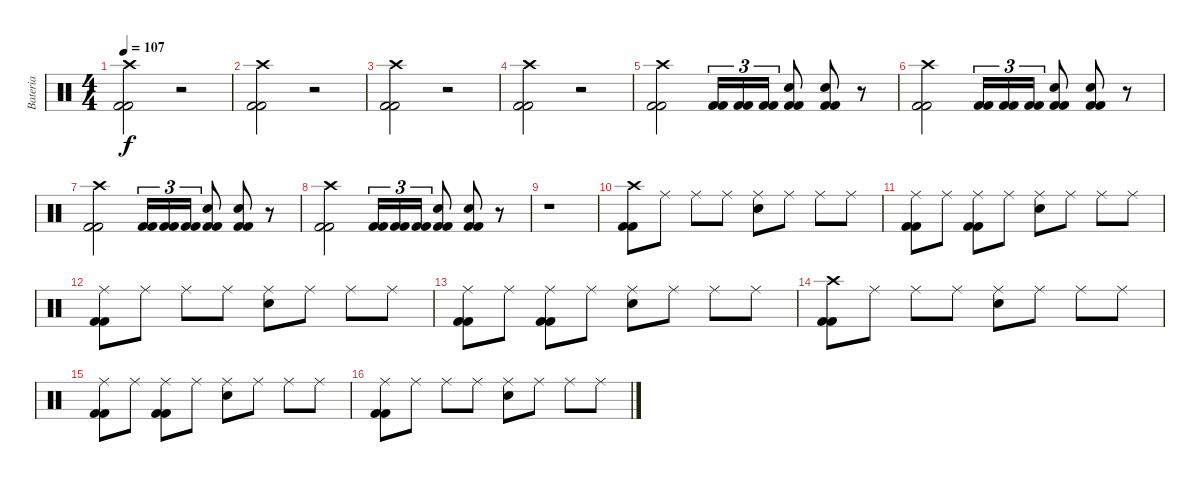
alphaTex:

\track ("Bateria" "Bateria") {instrument percussion}
\staff {score}
\articulation defaults
\ts (4 4)
\tempo 107
\clef neutral
\ks c
("Kick (hit) 2" "Kick (hit) 2" "Crash high (hit)").2{dy f} r.2 |
("Kick (hit) 2" "Kick (hit) 2" "Crash high (hit)").2 r.2 |
("Kick (hit) 2" "Kick (hit) 2" "Crash high (hit)").2 r.2 |
("Kick (hit) 2" "Kick (hit) 2" "Crash high (hit)").2 r.2 |
("Kick (hit) 2" "Kick (hit) 2" "Crash high (hit)").2 ("Kick (hit) 2" "Kick (hit) 2").16{tu (3 2)} ("Kick (hit) 2" "Kick (hit) 2").16{tu (3 2)} ("Kick (hit) 2" "Kick (hit) 2").16{tu (3 2)} ("Kick (hit) 2" "Kick (hit) 2" "Snare (hit) 2").8 ("Kick (hit) 2" "Kick (hit) 2" "Snare (hit) 2").8 r.8 |
("Kick (hit) 2" "Kick (hit) 2" "Crash high (hit)").2 ("Kick (hit) 2" "Kick (hit) 2").16{tu (3 2)} ("Kick (hit) 2" "Kick (hit) 2").16{tu (3 2)} ("Kick (hit) 2" "Kick (hit) 2").16{tu (3 2)} ("Kick (hit) 2" "Kick (hit) 2" "Snare (hit) 2").8 ("Kick (hit) 2" "Kick (hit) 2" "Snare (hit) 2").8 r.8 |
("Kick (hit) 2" "Kick (hit) 2" "Crash high (hit)").2 ("Kick (hit) 2" "Kick (hit) 2").16{tu (3 2)} ("Kick (hit) 2" "Kick (hit) 2").16{tu (3 2)} ("Kick (hit) 2" "Kick (hit) 2").16{tu (3 2)} ("Kick (hit) 2" "Kick (hit) 2" "Snare (hit) 2").8 ("Kick (hit) 2" "Kick (hit) 2" "Snare (hit) 2").8 r.8 |
("Kick (hit) 2" "Kick (hit) 2" "Crash high (hit)").2 ("Kick (hit) 2" "Kick (hit) 2").16{tu (3 2)} ("Kick (hit) 2" "Kick (hit) 2").16{tu (3 2)} ("Kick (hit) 2" "Kick (hit) 2").16{tu (3 2)} ("Kick (hit) 2" "Kick (hit) 2" "Snare (hit) 2").8 ("Kick (hit) 2" "Kick (hit) 2" "Snare (hit) 2").8 r.8 |
r.1 |
("Kick (hit) 2" "Kick (hit) 2" "Crash high (hit)").8 "Ride (middle)".8 "Ride (middle)".8 "Ride (middle)".8 ("Snare (hit) 2" "Ride (middle)").8 "Ride (middle)".8 "Ride (middle)".8 "Ride (middle)".8 |
("Kick (hit) 2" "Kick (hit) 2" "Ride (middle)").8 "Ride (middle)".8 ("Kick (hit) 2" "Kick (hit) 2" "Ride (middle)").8 "Ride (middle)".8 ("Snare (hit) 2" "Ride (middle)").8 "Ride (middle)".8 "Ride (middle)".8 "Ride (middle)".8 |
("Kick (hit) 2" "Kick (hit) 2" "Ride (middle)").8 "Ride (middle)".8 "Ride (middle)".8 "Ride (middle)".8 ("Snare (hit) 2" "Ride (middle)").8 "Ride (middle)".8 "Ride (middle)".8 "Ride (middle)".8 |
("Kick (hit) 2" "Kick (hit) 2" "Ride (middle)").8 "Ride (middle)".8 ("Kick (hit) 2" "Kick (hit) 2" "Ride (middle)").8 "Ride (middle)".8 ("Snare (hit) 2" "Ride (middle)").8 "Ride (middle)".8 "Ride (middle)".8 "Ride (middle)".8 |
("Kick (hit) 2" "Kick (hit) 2" "Crash high (hit)").8 "Ride (middle)".8 "Ride (middle)".8 "Ride (middle)".8 ("Snare (hit) 2" "Ride (middle)").8 "Ride (middle)".8 "Ride (middle)".8 "Ride (middle)".8 |
("Kick (hit) 2" "Kick (hit) 2" "Ride (middle)").8 "Ride (middle)".8 ("Kick (hit) 2" "Kick (hit) 2" "Ride (middle)").8 "Ride (middle)".8 ("Snare (hit) 2" "Ride (middle)").8 "Ride (middle)".8 "Ride (middle)".8 "Ride (middle)".8 |
("Kick (hit) 2" "Kick (hit) 2" "Ride (middle)").8 "Ride (middle)".8 "Ride (middle)".8 "Ride (middle)".8 ("Snare (hit) 2" "Ride (middle)").8 "Ride (middle)".8 "Ride (middle)".8 "Ride (middle)".8
